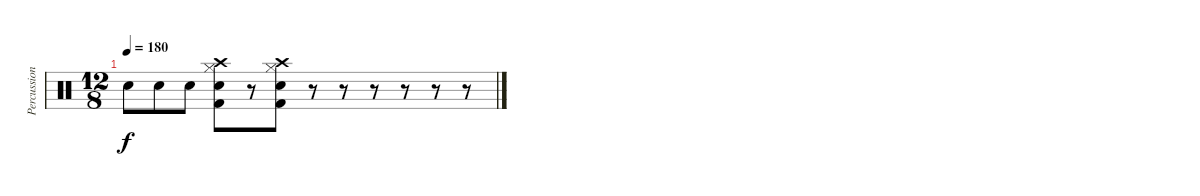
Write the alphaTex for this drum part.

\track ("Percussions" "Percussion") {instrument percussion}
\staff {score}
\articulation defaults
\ts (12 8)
\tempo 180
\clef neutral
\ks c "Snare (hit) 2".8{dy f} "Snare (hit) 2".8 "Snare (hit) 2".8
("Snare (hit) 2" "Kick (hit) 2" "Hi-Hat (closed)" "Crash high (hit)").8 r.8 ("Snare (hit) 2" "Kick (hit) 2" "Hi-Hat (closed)" "Crash high (hit)").8 r.8 r.8 r.8 r.8 r.8 r.8
